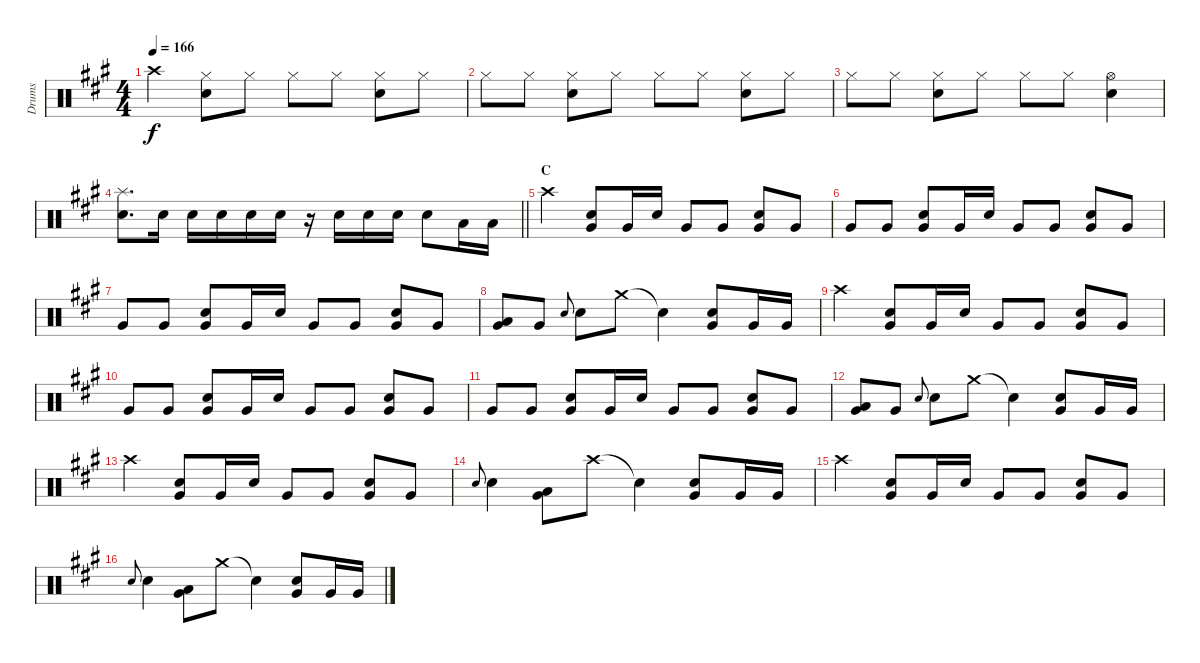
\track ("Drums" "Drums") {instrument percussion}
\staff {score}
\articulation defaults
\ts (4 4)
\tempo 166
\clef neutral
\ks a "Crash high (hit)".4{dy f}
("Hi-Hat (closed)" "Snare (hit) 2").8 "Hi-Hat (closed)".8 "Hi-Hat (closed)".8 "Hi-Hat (closed)".8 ("Hi-Hat (closed)" "Snare (hit) 2").8 "Hi-Hat (closed)".8 |
"Hi-Hat (closed)".8 "Hi-Hat (closed)".8 ("Hi-Hat (closed)" "Snare (hit) 2").8 "Hi-Hat (closed)".8 "Hi-Hat (closed)".8 "Hi-Hat (closed)".8 ("Hi-Hat (closed)" "Snare (hit) 2").8 "Hi-Hat (closed)".8 |
"Hi-Hat (closed)".8 "Hi-Hat (closed)".8 ("Hi-Hat (closed)" "Snare (hit) 2").8 "Hi-Hat (closed)".8 "Hi-Hat (closed)".8 "Hi-Hat (closed)".8 ("Hi-Hat (open)" "Snare (hit) 2").4 |
\barLineRight lightlight
("Splash (hit)" "Snare (hit) 2").8{d} "Snare (hit) 2".16 "Snare (hit) 2".16 "Snare (hit) 2".16 "Snare (hit) 2".16 "Snare (hit) 2".16 r.16 "Snare (hit) 2".16 "Snare (hit) 2".16 "Snare (hit) 2".16 "Snare (hit) 2".8 "Low Tom (hit)".16 "Low Tom (hit)".16 |
\section ("" "C")
"Crash high (hit)".4 ("Very Low Tom (hit)" "Snare (hit) 2").8 "Very Low Tom (hit)".16 "Snare (hit) 2".16 "Very Low Tom (hit)".8 "Very Low Tom (hit)".8 ("Very Low Tom (hit)" "Snare (hit) 2").8 "Very Low Tom (hit)".8 |
"Very Low Tom (hit)".8 "Very Low Tom (hit)".8 ("Very Low Tom (hit)" "Snare (hit) 2").8 "Very Low Tom (hit)".16 "Snare (hit) 2".16 "Very Low Tom (hit)".8 "Very Low Tom (hit)".8 ("Very Low Tom (hit)" "Snare (hit) 2").8 "Very Low Tom (hit)".8 |
"Very Low Tom (hit)".8 "Very Low Tom (hit)".8 ("Very Low Tom (hit)" "Snare (hit) 2").8 "Very Low Tom (hit)".16 "Snare (hit) 2".16 "Very Low Tom (hit)".8 "Very Low Tom (hit)".8 ("Very Low Tom (hit)" "Snare (hit) 2").8 "Very Low Tom (hit)".8 |
("Very Low Tom (hit)" "Low Tom (hit)").8 "Very Low Tom (hit)".8 "Snare (hit) 2".8{gr onbeat} "Snare (hit) 2".8 "Crash medium (hit)".8 "Snare (hit)"{t}.4 ("Snare (hit) 2" "Very Low Tom (hit)").8 "Very Low Tom (hit)".16 "Very Low Tom (hit)".16 |
"Crash high (hit)".4 ("Very Low Tom (hit)" "Snare (hit) 2").8 "Very Low Tom (hit)".16 "Snare (hit) 2".16 "Very Low Tom (hit)".8 "Very Low Tom (hit)".8 ("Very Low Tom (hit)" "Snare (hit) 2").8 "Very Low Tom (hit)".8 |
"Very Low Tom (hit)".8 "Very Low Tom (hit)".8 ("Very Low Tom (hit)" "Snare (hit) 2").8 "Very Low Tom (hit)".16 "Snare (hit) 2".16 "Very Low Tom (hit)".8 "Very Low Tom (hit)".8 ("Very Low Tom (hit)" "Snare (hit) 2").8 "Very Low Tom (hit)".8 |
"Very Low Tom (hit)".8 "Very Low Tom (hit)".8 ("Very Low Tom (hit)" "Snare (hit) 2").8 "Very Low Tom (hit)".16 "Snare (hit) 2".16 "Very Low Tom (hit)".8 "Very Low Tom (hit)".8 ("Very Low Tom (hit)" "Snare (hit) 2").8 "Very Low Tom (hit)".8 |
("Very Low Tom (hit)" "Low Tom (hit)").8 "Very Low Tom (hit)".8 "Snare (hit) 2".8{gr onbeat} "Snare (hit) 2".8 "Crash medium (hit)".8 "Snare (hit)"{t}.4 ("Snare (hit) 2" "Very Low Tom (hit)").8 "Very Low Tom (hit)".16 "Very Low Tom (hit)".16 |
"Crash high (hit)".4 ("Snare (hit) 2" "Very Low Tom (hit)").8 "Very Low Tom (hit)".16 "Snare (hit) 2".16 "Very Low Tom (hit)".8 "Very Low Tom (hit)".8 ("Very Low Tom (hit)" "Snare (hit) 2").8 "Very Low Tom (hit)".8 |
"Snare (hit) 2".8{gr onbeat} "Snare (hit) 2".4 ("Very Low Tom (hit)" "Low Tom (hit)").8 "Crash high (hit)".8 "Snare (hit)"{t}.4 ("Snare (hit) 2" "Very Low Tom (hit)").8 "Very Low Tom (hit)".16 "Very Low Tom (hit)".16 |
"Crash high (hit)".4 ("Snare (hit) 2" "Very Low Tom (hit)").8 "Very Low Tom (hit)".16 "Snare (hit) 2".16 "Very Low Tom (hit)".8 "Very Low Tom (hit)".8 ("Very Low Tom (hit)" "Snare (hit) 2").8 "Very Low Tom (hit)".8 |
"Snare (hit) 2".8{gr onbeat} "Snare (hit) 2".4 ("Very Low Tom (hit)" "Low Tom (hit)").8 "Crash medium (hit)".8 "Snare (hit)"{t}.4 ("Snare (hit) 2" "Very Low Tom (hit)").8 "Very Low Tom (hit)".16 "Very Low Tom (hit)".16
